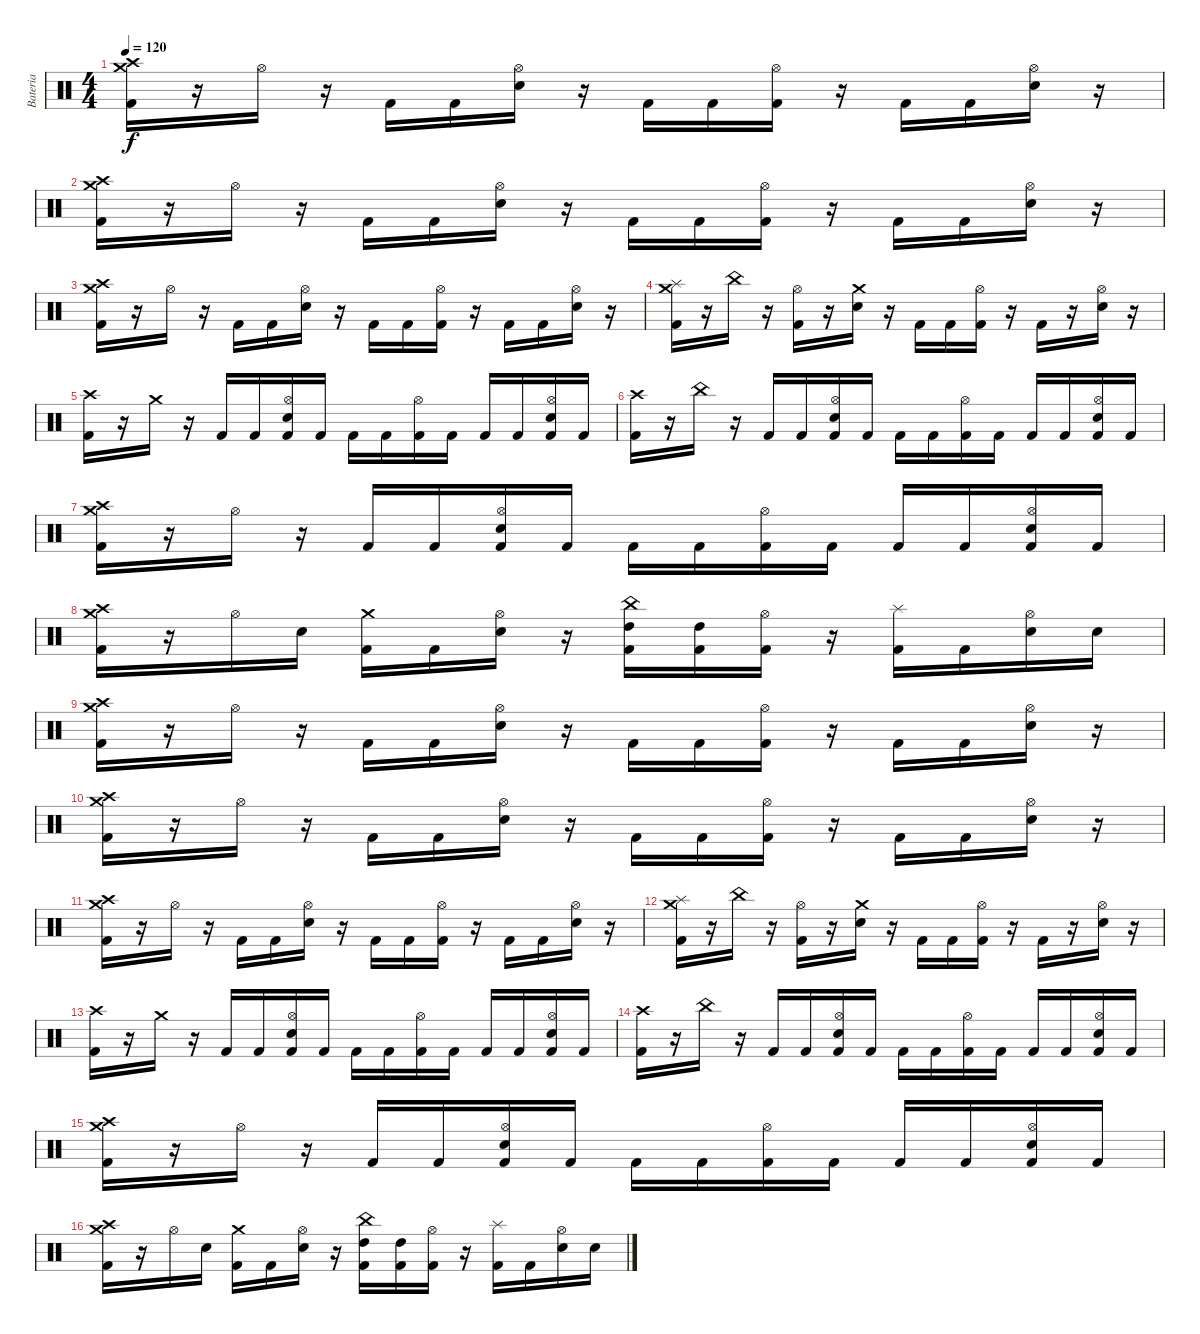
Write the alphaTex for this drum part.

\track ("Bateria" "Bateria") {instrument percussion}
\staff {score}
\articulation defaults
\ts (4 4)
\tempo 120
\clef neutral
\ks c
("Crash medium (hit)" "Crash high (hit)" "Kick (hit) 2").16{dy f} r.16 "Hi-Hat (open)".16 r.16 "Kick (hit) 2".16 "Kick (hit) 2".16 ("Hi-Hat (open)" "Electric Snare (hit)").16 r.16 "Kick (hit) 2".16 "Kick (hit) 2".16 ("Hi-Hat (open)" "Kick (hit) 2").16 r.16 "Kick (hit) 2".16 "Kick (hit) 2".16 ("Hi-Hat (open)" "Electric Snare (hit)").16 r.16 |
("Crash medium (hit)" "Crash high (hit)" "Kick (hit) 2").16 r.16 "Hi-Hat (open)".16 r.16 "Kick (hit) 2".16 "Kick (hit) 2".16 ("Hi-Hat (open)" "Electric Snare (hit)").16 r.16 "Kick (hit) 2".16 "Kick (hit) 2".16 ("Hi-Hat (open)" "Kick (hit) 2").16 r.16 "Kick (hit) 2".16 "Kick (hit) 2".16 ("Hi-Hat (open)" "Electric Snare (hit)").16 r.16 |
("Crash medium (hit)" "Crash high (hit)" "Kick (hit) 2").16 r.16 "Hi-Hat (open)".16 r.16 "Kick (hit) 2".16 "Kick (hit) 2".16 ("Hi-Hat (open)" "Electric Snare (hit)").16 r.16 "Kick (hit) 2".16 "Kick (hit) 2".16 ("Hi-Hat (open)" "Kick (hit) 2").16 r.16 "Kick (hit) 2".16 "Kick (hit) 2".16 ("Hi-Hat (open)" "Electric Snare (hit)").16 r.16 |
("Crash medium (hit)" "Splash (hit)" "Kick (hit) 2").16 r.16 "China (hit)".16 r.16 ("Hi-Hat (open)" "Kick (hit) 2").16 r.16 ("Crash medium (hit)" "Electric Snare (hit)").16 r.16 "Kick (hit) 2".16 "Kick (hit) 2".16 ("Hi-Hat (open)" "Kick (hit) 2").16 r.16 "Kick (hit) 2".16 r.16 ("Hi-Hat (open)" "Electric Snare (hit)").16 r.16 |
("Crash high (hit)" "Kick (hit) 2").16 r.16 "Crash medium (hit)".16 r.16 "Kick (hit) 2".16 "Kick (hit) 2".16 ("Hi-Hat (open)" "Electric Snare (hit)" "Kick (hit) 2").16 "Kick (hit) 2".16 "Kick (hit) 2".16 "Kick (hit) 2".16 ("Hi-Hat (open)" "Kick (hit) 2").16 "Kick (hit) 2".16 "Kick (hit) 2".16 "Kick (hit) 2".16 ("Hi-Hat (open)" "Electric Snare (hit)" "Kick (hit) 2").16 "Kick (hit) 2".16 |
("Crash high (hit)" "Kick (hit) 2").16 r.16 "China (hit)".16 r.16 "Kick (hit) 2".16 "Kick (hit) 2".16 ("Hi-Hat (open)" "Electric Snare (hit)" "Kick (hit) 2").16 "Kick (hit) 2".16 "Kick (hit) 2".16 "Kick (hit) 2".16 ("Hi-Hat (open)" "Kick (hit) 2").16 "Kick (hit) 2".16 "Kick (hit) 2".16 "Kick (hit) 2".16 ("Hi-Hat (open)" "Electric Snare (hit)" "Kick (hit) 2").16 "Kick (hit) 2".16 |
("Crash medium (hit)" "Crash high (hit)" "Kick (hit) 2").16 r.16 "Hi-Hat (open)".16 r.16 "Kick (hit) 2".16 "Kick (hit) 2".16 ("Hi-Hat (open)" "Electric Snare (hit)" "Kick (hit) 2").16 "Kick (hit) 2".16 "Kick (hit) 2".16 "Kick (hit) 2".16 ("Hi-Hat (open)" "Kick (hit) 2").16 "Kick (hit) 2".16 "Kick (hit) 2".16 "Kick (hit) 2".16 ("Hi-Hat (open)" "Electric Snare (hit)" "Kick (hit) 2").16 "Kick (hit) 2".16 |
("Crash medium (hit)" "Crash high (hit)" "Kick (hit) 2").16 r.16 "Hi-Hat (open)".16 "Electric Snare (hit)".16 ("Crash medium (hit)" "Kick (hit) 2").16 "Kick (hit) 2".16 ("Hi-Hat (open)" "Electric Snare (hit)").16 r.16 ("China (hit)" "High Tom (hit)" "Kick (hit) 2").16 ("High Tom (hit)" "Kick (hit) 2").16 ("Hi-Hat (open)" "Kick (hit) 2").16 r.16 ("Splash (hit)" "Kick (hit) 2").16 "Kick (hit) 2".16 ("Hi-Hat (open)" "Electric Snare (hit)").16 "Electric Snare (hit)".16 |
("Crash medium (hit)" "Crash high (hit)" "Kick (hit) 2").16 r.16 "Hi-Hat (open)".16 r.16 "Kick (hit) 2".16 "Kick (hit) 2".16 ("Hi-Hat (open)" "Electric Snare (hit)").16 r.16 "Kick (hit) 2".16 "Kick (hit) 2".16 ("Hi-Hat (open)" "Kick (hit) 2").16 r.16 "Kick (hit) 2".16 "Kick (hit) 2".16 ("Hi-Hat (open)" "Electric Snare (hit)").16 r.16 |
("Crash medium (hit)" "Crash high (hit)" "Kick (hit) 2").16 r.16 "Hi-Hat (open)".16 r.16 "Kick (hit) 2".16 "Kick (hit) 2".16 ("Hi-Hat (open)" "Electric Snare (hit)").16 r.16 "Kick (hit) 2".16 "Kick (hit) 2".16 ("Hi-Hat (open)" "Kick (hit) 2").16 r.16 "Kick (hit) 2".16 "Kick (hit) 2".16 ("Hi-Hat (open)" "Electric Snare (hit)").16 r.16 |
("Crash medium (hit)" "Crash high (hit)" "Kick (hit) 2").16 r.16 "Hi-Hat (open)".16 r.16 "Kick (hit) 2".16 "Kick (hit) 2".16 ("Hi-Hat (open)" "Electric Snare (hit)").16 r.16 "Kick (hit) 2".16 "Kick (hit) 2".16 ("Hi-Hat (open)" "Kick (hit) 2").16 r.16 "Kick (hit) 2".16 "Kick (hit) 2".16 ("Hi-Hat (open)" "Electric Snare (hit)").16 r.16 |
("Crash medium (hit)" "Splash (hit)" "Kick (hit) 2").16 r.16 "China (hit)".16 r.16 ("Hi-Hat (open)" "Kick (hit) 2").16 r.16 ("Crash medium (hit)" "Electric Snare (hit)").16 r.16 "Kick (hit) 2".16 "Kick (hit) 2".16 ("Hi-Hat (open)" "Kick (hit) 2").16 r.16 "Kick (hit) 2".16 r.16 ("Hi-Hat (open)" "Electric Snare (hit)").16 r.16 |
("Crash high (hit)" "Kick (hit) 2").16 r.16 "Crash medium (hit)".16 r.16 "Kick (hit) 2".16 "Kick (hit) 2".16 ("Hi-Hat (open)" "Electric Snare (hit)" "Kick (hit) 2").16 "Kick (hit) 2".16 "Kick (hit) 2".16 "Kick (hit) 2".16 ("Hi-Hat (open)" "Kick (hit) 2").16 "Kick (hit) 2".16 "Kick (hit) 2".16 "Kick (hit) 2".16 ("Hi-Hat (open)" "Electric Snare (hit)" "Kick (hit) 2").16 "Kick (hit) 2".16 |
("Crash high (hit)" "Kick (hit) 2").16 r.16 "China (hit)".16 r.16 "Kick (hit) 2".16 "Kick (hit) 2".16 ("Hi-Hat (open)" "Electric Snare (hit)" "Kick (hit) 2").16 "Kick (hit) 2".16 "Kick (hit) 2".16 "Kick (hit) 2".16 ("Hi-Hat (open)" "Kick (hit) 2").16 "Kick (hit) 2".16 "Kick (hit) 2".16 "Kick (hit) 2".16 ("Hi-Hat (open)" "Electric Snare (hit)" "Kick (hit) 2").16 "Kick (hit) 2".16 |
("Crash medium (hit)" "Crash high (hit)" "Kick (hit) 2").16 r.16 "Hi-Hat (open)".16 r.16 "Kick (hit) 2".16 "Kick (hit) 2".16 ("Hi-Hat (open)" "Electric Snare (hit)" "Kick (hit) 2").16 "Kick (hit) 2".16 "Kick (hit) 2".16 "Kick (hit) 2".16 ("Hi-Hat (open)" "Kick (hit) 2").16 "Kick (hit) 2".16 "Kick (hit) 2".16 "Kick (hit) 2".16 ("Hi-Hat (open)" "Electric Snare (hit)" "Kick (hit) 2").16 "Kick (hit) 2".16 |
("Crash medium (hit)" "Crash high (hit)" "Kick (hit) 2").16 r.16 "Hi-Hat (open)".16 "Electric Snare (hit)".16 ("Crash medium (hit)" "Kick (hit) 2").16 "Kick (hit) 2".16 ("Hi-Hat (open)" "Electric Snare (hit)").16 r.16 ("China (hit)" "High Tom (hit)" "Kick (hit) 2").16 ("High Tom (hit)" "Kick (hit) 2").16 ("Hi-Hat (open)" "Kick (hit) 2").16 r.16 ("Splash (hit)" "Kick (hit) 2").16 "Kick (hit) 2".16 ("Hi-Hat (open)" "Electric Snare (hit)").16 "Electric Snare (hit)".16
